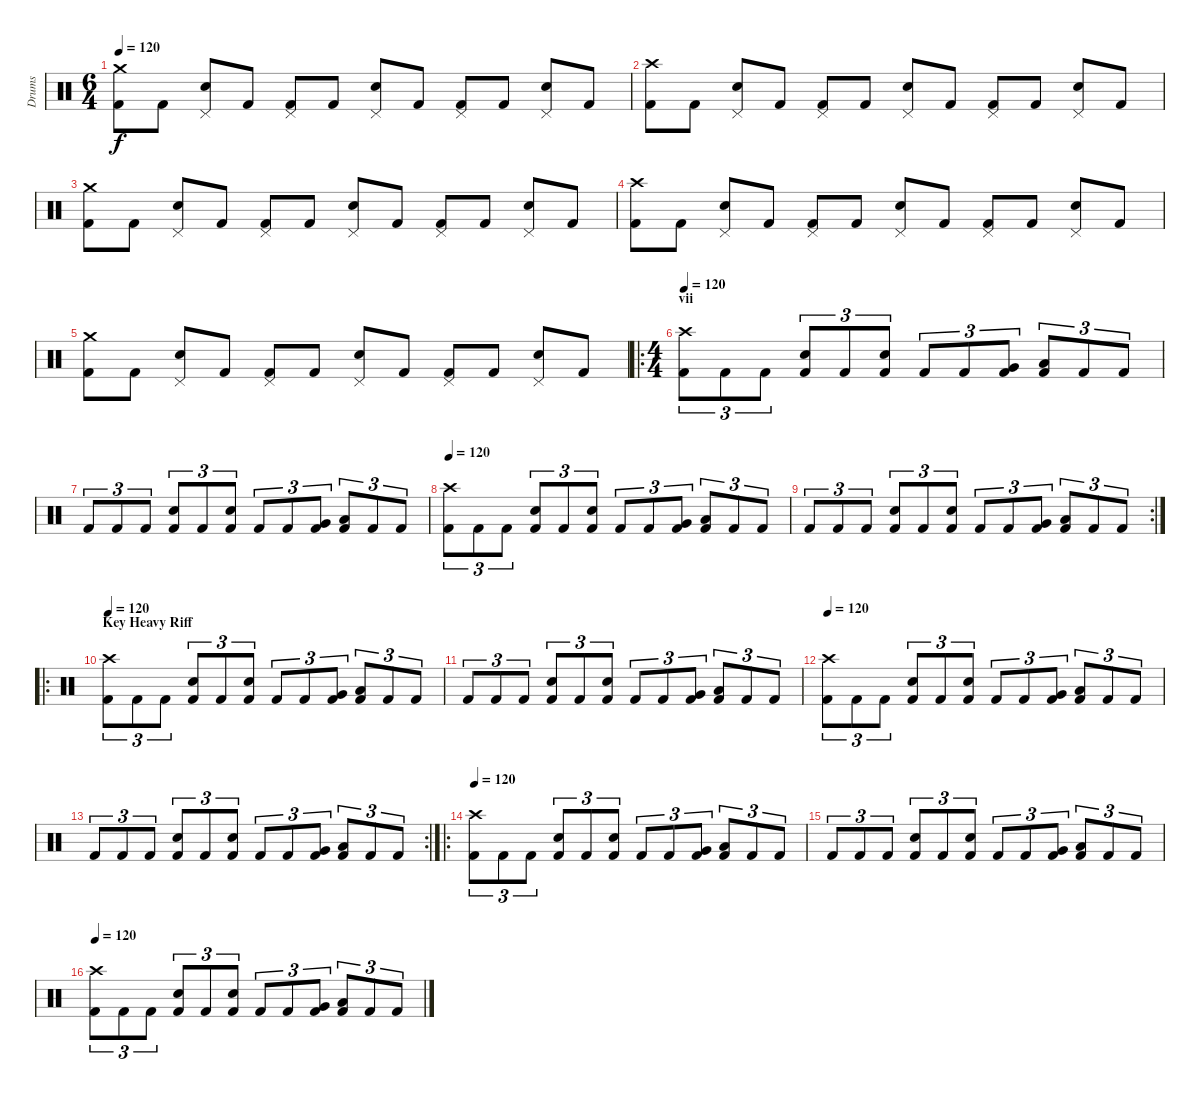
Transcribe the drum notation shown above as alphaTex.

\track ("Drums" "Drums") {instrument percussion}
\staff {score}
\articulation defaults
\ts (6 4)
\tempo 120
\clef neutral
\ks c
("Crash medium (hit)" "Kick (hit) 2").8{dy f} "Kick (hit) 2".8 ("Pedal Hi-Hat (hit)" "Snare (hit) 2").8 "Kick (hit) 2".8 ("Pedal Hi-Hat (hit)" "Kick (hit) 2").8 "Kick (hit) 2".8 ("Pedal Hi-Hat (hit)" "Snare (hit) 2").8 "Kick (hit) 2".8 ("Pedal Hi-Hat (hit)" "Kick (hit) 2").8 "Kick (hit) 2".8 ("Pedal Hi-Hat (hit)" "Snare (hit) 2").8 "Kick (hit) 2".8 |
("Crash high (hit)" "Kick (hit) 2").8 "Kick (hit) 2".8 ("Pedal Hi-Hat (hit)" "Snare (hit) 2").8 "Kick (hit) 2".8 ("Pedal Hi-Hat (hit)" "Kick (hit) 2").8 "Kick (hit) 2".8 ("Pedal Hi-Hat (hit)" "Snare (hit) 2").8 "Kick (hit) 2".8 ("Pedal Hi-Hat (hit)" "Kick (hit) 2").8 "Kick (hit) 2".8 ("Pedal Hi-Hat (hit)" "Snare (hit) 2").8 "Kick (hit) 2".8 |
("Crash medium (hit)" "Kick (hit) 2").8 "Kick (hit) 2".8 ("Pedal Hi-Hat (hit)" "Snare (hit) 2").8 "Kick (hit) 2".8 ("Pedal Hi-Hat (hit)" "Kick (hit) 2").8 "Kick (hit) 2".8 ("Pedal Hi-Hat (hit)" "Snare (hit) 2").8 "Kick (hit) 2".8 ("Pedal Hi-Hat (hit)" "Kick (hit) 2").8 "Kick (hit) 2".8 ("Pedal Hi-Hat (hit)" "Snare (hit) 2").8 "Kick (hit) 2".8 |
("Crash high (hit)" "Kick (hit) 2").8 "Kick (hit) 2".8 ("Pedal Hi-Hat (hit)" "Snare (hit) 2").8 "Kick (hit) 2".8 ("Pedal Hi-Hat (hit)" "Kick (hit) 2").8 "Kick (hit) 2".8 ("Pedal Hi-Hat (hit)" "Snare (hit) 2").8 "Kick (hit) 2".8 ("Pedal Hi-Hat (hit)" "Kick (hit) 2").8 "Kick (hit) 2".8 ("Pedal Hi-Hat (hit)" "Snare (hit) 2").8 "Kick (hit) 2".8 |
("Crash medium (hit)" "Kick (hit) 2").8 "Kick (hit) 2".8 ("Pedal Hi-Hat (hit)" "Snare (hit) 2").8 "Kick (hit) 2".8 ("Pedal Hi-Hat (hit)" "Kick (hit) 2").8 "Kick (hit) 2".8 ("Pedal Hi-Hat (hit)" "Snare (hit) 2").8 "Kick (hit) 2".8 ("Pedal Hi-Hat (hit)" "Kick (hit) 2").8 "Kick (hit) 2".8 ("Pedal Hi-Hat (hit)" "Snare (hit) 2").8 "Kick (hit) 2".8 |
\ro
\ts (4 4)
\section ("" "vii")
\tempo 120
("Kick (hit) 2" "Crash high (hit)").8{tu (3 2)} "Kick (hit) 2".8{tu (3 2)} "Kick (hit) 2".8{tu (3 2)} ("Kick (hit) 2" "Electric Snare (hit)").8{tu (3 2)} "Kick (hit) 2".8{tu (3 2)} ("Kick (hit) 2" "Electric Snare (hit)").8{tu (3 2)} "Kick (hit) 2".8{tu (3 2)} "Kick (hit) 2".8{tu (3 2)} ("Kick (hit) 2" "Very Low Tom (hit)").8{tu (3 2)} ("Kick (hit) 2" "Low Tom (hit)").8{tu (3 2)} "Kick (hit) 2".8{tu (3 2)} "Kick (hit) 2".8{tu (3 2)} |
"Kick (hit) 2".8{tu (3 2)} "Kick (hit) 2".8{tu (3 2)} "Kick (hit) 2".8{tu (3 2)} ("Kick (hit) 2" "Electric Snare (hit)").8{tu (3 2)} "Kick (hit) 2".8{tu (3 2)} ("Kick (hit) 2" "Electric Snare (hit)").8{tu (3 2)} "Kick (hit) 2".8{tu (3 2)} "Kick (hit) 2".8{tu (3 2)} ("Kick (hit) 2" "Very Low Tom (hit)").8{tu (3 2)} ("Kick (hit) 2" "Low Tom (hit)").8{tu (3 2)} "Kick (hit) 2".8{tu (3 2)} "Kick (hit) 2".8{tu (3 2)} |
\tempo 120
("Kick (hit) 2" "Crash high (hit)").8{tu (3 2)} "Kick (hit) 2".8{tu (3 2)} "Kick (hit) 2".8{tu (3 2)} ("Kick (hit) 2" "Electric Snare (hit)").8{tu (3 2)} "Kick (hit) 2".8{tu (3 2)} ("Kick (hit) 2" "Electric Snare (hit)").8{tu (3 2)} "Kick (hit) 2".8{tu (3 2)} "Kick (hit) 2".8{tu (3 2)} ("Kick (hit) 2" "Very Low Tom (hit)").8{tu (3 2)} ("Kick (hit) 2" "Low Tom (hit)").8{tu (3 2)} "Kick (hit) 2".8{tu (3 2)} "Kick (hit) 2".8{tu (3 2)} |
\rc 2 "Kick (hit) 2".8{tu (3 2)} "Kick (hit) 2".8{tu (3 2)} "Kick (hit) 2".8{tu (3 2)}
("Kick (hit) 2" "Electric Snare (hit)").8{tu (3 2)} "Kick (hit) 2".8{tu (3 2)} ("Kick (hit) 2" "Electric Snare (hit)").8{tu (3 2)} "Kick (hit) 2".8{tu (3 2)} "Kick (hit) 2".8{tu (3 2)} ("Kick (hit) 2" "Very Low Tom (hit)").8{tu (3 2)} ("Kick (hit) 2" "Low Tom (hit)").8{tu (3 2)} "Kick (hit) 2".8{tu (3 2)} "Kick (hit) 2".8{tu (3 2)} |
\ro
\section ("" "Key Heavy Riff")
\tempo 120
("Kick (hit) 2" "Crash high (hit)").8{tu (3 2)} "Kick (hit) 2".8{tu (3 2)} "Kick (hit) 2".8{tu (3 2)} ("Kick (hit) 2" "Electric Snare (hit)").8{tu (3 2)} "Kick (hit) 2".8{tu (3 2)} ("Kick (hit) 2" "Electric Snare (hit)").8{tu (3 2)} "Kick (hit) 2".8{tu (3 2)} "Kick (hit) 2".8{tu (3 2)} ("Kick (hit) 2" "Very Low Tom (hit)").8{tu (3 2)} ("Kick (hit) 2" "Low Tom (hit)").8{tu (3 2)} "Kick (hit) 2".8{tu (3 2)} "Kick (hit) 2".8{tu (3 2)} |
"Kick (hit) 2".8{tu (3 2)} "Kick (hit) 2".8{tu (3 2)} "Kick (hit) 2".8{tu (3 2)} ("Kick (hit) 2" "Electric Snare (hit)").8{tu (3 2)} "Kick (hit) 2".8{tu (3 2)} ("Kick (hit) 2" "Electric Snare (hit)").8{tu (3 2)} "Kick (hit) 2".8{tu (3 2)} "Kick (hit) 2".8{tu (3 2)} ("Kick (hit) 2" "Very Low Tom (hit)").8{tu (3 2)} ("Kick (hit) 2" "Low Tom (hit)").8{tu (3 2)} "Kick (hit) 2".8{tu (3 2)} "Kick (hit) 2".8{tu (3 2)} |
\tempo 120
("Kick (hit) 2" "Crash high (hit)").8{tu (3 2)} "Kick (hit) 2".8{tu (3 2)} "Kick (hit) 2".8{tu (3 2)} ("Kick (hit) 2" "Electric Snare (hit)").8{tu (3 2)} "Kick (hit) 2".8{tu (3 2)} ("Kick (hit) 2" "Electric Snare (hit)").8{tu (3 2)} "Kick (hit) 2".8{tu (3 2)} "Kick (hit) 2".8{tu (3 2)} ("Kick (hit) 2" "Very Low Tom (hit)").8{tu (3 2)} ("Kick (hit) 2" "Low Tom (hit)").8{tu (3 2)} "Kick (hit) 2".8{tu (3 2)} "Kick (hit) 2".8{tu (3 2)} |
\rc 2 "Kick (hit) 2".8{tu (3 2)} "Kick (hit) 2".8{tu (3 2)} "Kick (hit) 2".8{tu (3 2)}
("Kick (hit) 2" "Electric Snare (hit)").8{tu (3 2)} "Kick (hit) 2".8{tu (3 2)} ("Kick (hit) 2" "Electric Snare (hit)").8{tu (3 2)} "Kick (hit) 2".8{tu (3 2)} "Kick (hit) 2".8{tu (3 2)} ("Kick (hit) 2" "Very Low Tom (hit)").8{tu (3 2)} ("Kick (hit) 2" "Low Tom (hit)").8{tu (3 2)} "Kick (hit) 2".8{tu (3 2)} "Kick (hit) 2".8{tu (3 2)} |
\ro
\tempo 120
("Kick (hit) 2" "Crash high (hit)").8{tu (3 2)} "Kick (hit) 2".8{tu (3 2)} "Kick (hit) 2".8{tu (3 2)} ("Kick (hit) 2" "Electric Snare (hit)").8{tu (3 2)} "Kick (hit) 2".8{tu (3 2)} ("Kick (hit) 2" "Electric Snare (hit)").8{tu (3 2)} "Kick (hit) 2".8{tu (3 2)} "Kick (hit) 2".8{tu (3 2)} ("Kick (hit) 2" "Very Low Tom (hit)").8{tu (3 2)} ("Kick (hit) 2" "Low Tom (hit)").8{tu (3 2)} "Kick (hit) 2".8{tu (3 2)} "Kick (hit) 2".8{tu (3 2)} |
"Kick (hit) 2".8{tu (3 2)} "Kick (hit) 2".8{tu (3 2)} "Kick (hit) 2".8{tu (3 2)} ("Kick (hit) 2" "Electric Snare (hit)").8{tu (3 2)} "Kick (hit) 2".8{tu (3 2)} ("Kick (hit) 2" "Electric Snare (hit)").8{tu (3 2)} "Kick (hit) 2".8{tu (3 2)} "Kick (hit) 2".8{tu (3 2)} ("Kick (hit) 2" "Very Low Tom (hit)").8{tu (3 2)} ("Kick (hit) 2" "Low Tom (hit)").8{tu (3 2)} "Kick (hit) 2".8{tu (3 2)} "Kick (hit) 2".8{tu (3 2)} |
\tempo 120
("Kick (hit) 2" "Crash high (hit)").8{tu (3 2)} "Kick (hit) 2".8{tu (3 2)} "Kick (hit) 2".8{tu (3 2)} ("Kick (hit) 2" "Electric Snare (hit)").8{tu (3 2)} "Kick (hit) 2".8{tu (3 2)} ("Kick (hit) 2" "Electric Snare (hit)").8{tu (3 2)} "Kick (hit) 2".8{tu (3 2)} "Kick (hit) 2".8{tu (3 2)} ("Kick (hit) 2" "Very Low Tom (hit)").8{tu (3 2)} ("Kick (hit) 2" "Low Tom (hit)").8{tu (3 2)} "Kick (hit) 2".8{tu (3 2)} "Kick (hit) 2".8{tu (3 2)}
